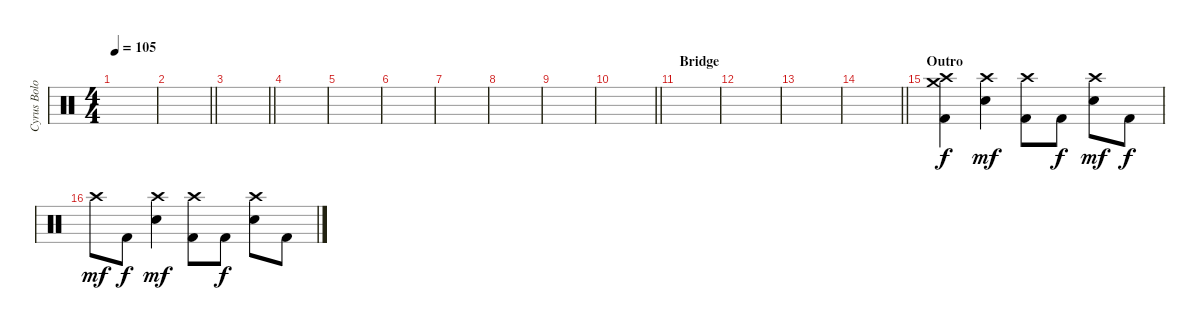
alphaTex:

\track ("Cyrus Bolooki Fade" "Cyrus Bolo") {instrument percussion}
\staff {score}
\articulation defaults
\ts (4 4)
\tempo 105
\clef neutral
\ks c
|
\barLineRight lightlight
|
\barLineRight lightlight
|
|
|
|
|
|
|
\barLineRight lightlight
|
\section ("" "Bridge")
|
|
|
\barLineRight lightlight
|
\section ("" "Outro")
("Crash high (hit)" "Crash medium (hit)" "Kick (hit) 2").4{volume 7} ("Crash high (hit)" "Electric Snare (hit)").4{dy mf} ("Crash high (hit)" "Kick (hit) 2").8 "Kick (hit) 2".8{dy f} ("Crash high (hit)" "Electric Snare (hit)").8{dy mf} "Kick (hit) 2".8{dy f} |
"Crash high (hit)".8{dy mf} "Kick (hit) 2".8{dy f} ("Crash high (hit)" "Electric Snare (hit)").4{dy mf} ("Crash high (hit)" "Kick (hit) 2").8 "Kick (hit) 2".8{dy f} ("Crash high (hit)" "Electric Snare (hit)").8 "Kick (hit) 2".8
